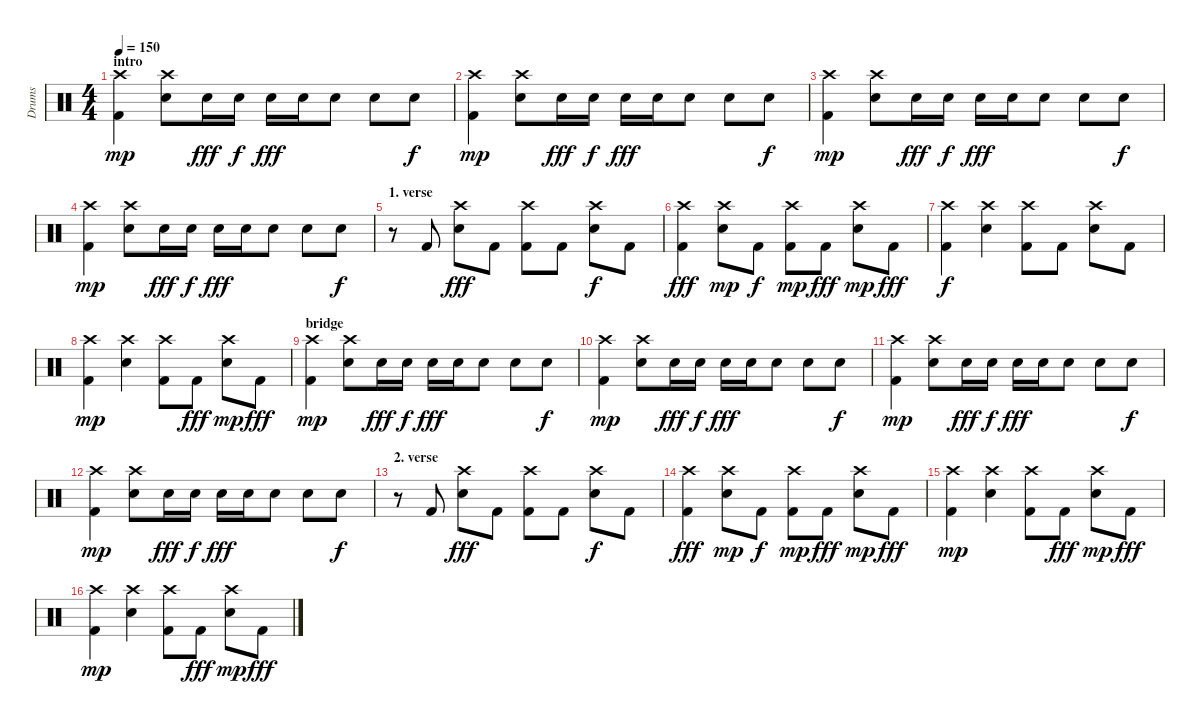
\track ("Drums" "Drums") {instrument percussion}
\staff {score}
\articulation defaults
\ts (4 4)
\section ("" "intro")
\tempo 150
\clef neutral
\ks c
("Kick (hit) 2" "Crash high (hit)").4{dy mp} ("Electric Snare (hit)" "Crash high (hit)").8 "Electric Snare (hit)".16{dy fff} "Electric Snare (hit)".16{dy f} "Electric Snare (hit)".16{dy fff} "Electric Snare (hit)".16 "Electric Snare (hit)".8 "Electric Snare (hit)".8 "Electric Snare (hit)".8{dy f} |
("Kick (hit) 2" "Crash high (hit)").4{dy mp} ("Electric Snare (hit)" "Crash high (hit)").8 "Electric Snare (hit)".16{dy fff} "Electric Snare (hit)".16{dy f} "Electric Snare (hit)".16{dy fff} "Electric Snare (hit)".16 "Electric Snare (hit)".8 "Electric Snare (hit)".8 "Electric Snare (hit)".8{dy f} |
("Kick (hit) 2" "Crash high (hit)").4{dy mp} ("Electric Snare (hit)" "Crash high (hit)").8 "Electric Snare (hit)".16{dy fff} "Electric Snare (hit)".16{dy f} "Electric Snare (hit)".16{dy fff} "Electric Snare (hit)".16 "Electric Snare (hit)".8 "Electric Snare (hit)".8 "Electric Snare (hit)".8{dy f} |
("Kick (hit) 2" "Crash high (hit)").4{dy mp} ("Electric Snare (hit)" "Crash high (hit)").8 "Electric Snare (hit)".16{dy fff} "Electric Snare (hit)".16{dy f} "Electric Snare (hit)".16{dy fff} "Electric Snare (hit)".16 "Electric Snare (hit)".8 "Electric Snare (hit)".8 "Electric Snare (hit)".8{dy f} |
\section ("" "1. verse")
r.8 "Kick (hit) 2".8 ("Electric Snare (hit)" "Crash high (hit)").8{dy fff} "Kick (hit) 2".8 ("Kick (hit) 2" "Crash high (hit)").8 "Kick (hit) 2".8 ("Electric Snare (hit)" "Crash high (hit)").8{dy f} "Kick (hit) 2".8 |
("Kick (hit) 2" "Crash high (hit)").4{dy fff} ("Electric Snare (hit)" "Crash high (hit)").8{dy mp} "Kick (hit) 2".8{dy f} ("Kick (hit) 2" "Crash high (hit)").8{dy mp} "Kick (hit) 2".8{dy fff} ("Electric Snare (hit)" "Crash high (hit)").8{dy mp} "Kick (hit) 2".8{dy fff} |
("Kick (hit) 2" "Crash high (hit)").4{dy f} ("Electric Snare (hit)" "Crash high (hit)").4 ("Kick (hit) 2" "Crash high (hit)").8 "Kick (hit) 2".8 ("Electric Snare (hit)" "Crash high (hit)").8 "Kick (hit) 2".8 |
("Kick (hit) 2" "Crash high (hit)").4{dy mp} ("Electric Snare (hit)" "Crash high (hit)").4 ("Kick (hit) 2" "Crash high (hit)").8 "Kick (hit) 2".8{dy fff} ("Electric Snare (hit)" "Crash high (hit)").8{dy mp} "Kick (hit) 2".8{dy fff} |
\section ("" "bridge")
("Kick (hit) 2" "Crash high (hit)").4{dy mp} ("Electric Snare (hit)" "Crash high (hit)").8 "Electric Snare (hit)".16{dy fff} "Electric Snare (hit)".16{dy f} "Electric Snare (hit)".16{dy fff} "Electric Snare (hit)".16 "Electric Snare (hit)".8 "Electric Snare (hit)".8 "Electric Snare (hit)".8{dy f} |
("Kick (hit) 2" "Crash high (hit)").4{dy mp} ("Electric Snare (hit)" "Crash high (hit)").8 "Electric Snare (hit)".16{dy fff} "Electric Snare (hit)".16{dy f} "Electric Snare (hit)".16{dy fff} "Electric Snare (hit)".16 "Electric Snare (hit)".8 "Electric Snare (hit)".8 "Electric Snare (hit)".8{dy f} |
("Kick (hit) 2" "Crash high (hit)").4{dy mp} ("Electric Snare (hit)" "Crash high (hit)").8 "Electric Snare (hit)".16{dy fff} "Electric Snare (hit)".16{dy f} "Electric Snare (hit)".16{dy fff} "Electric Snare (hit)".16 "Electric Snare (hit)".8 "Electric Snare (hit)".8 "Electric Snare (hit)".8{dy f} |
("Kick (hit) 2" "Crash high (hit)").4{dy mp} ("Electric Snare (hit)" "Crash high (hit)").8 "Electric Snare (hit)".16{dy fff} "Electric Snare (hit)".16{dy f} "Electric Snare (hit)".16{dy fff} "Electric Snare (hit)".16 "Electric Snare (hit)".8 "Electric Snare (hit)".8 "Electric Snare (hit)".8{dy f} |
\section ("" "2. verse")
r.8 "Kick (hit) 2".8 ("Electric Snare (hit)" "Crash high (hit)").8{dy fff} "Kick (hit) 2".8 ("Kick (hit) 2" "Crash high (hit)").8 "Kick (hit) 2".8 ("Electric Snare (hit)" "Crash high (hit)").8{dy f} "Kick (hit) 2".8 |
("Kick (hit) 2" "Crash high (hit)").4{dy fff} ("Electric Snare (hit)" "Crash high (hit)").8{dy mp} "Kick (hit) 2".8{dy f} ("Kick (hit) 2" "Crash high (hit)").8{dy mp} "Kick (hit) 2".8{dy fff} ("Electric Snare (hit)" "Crash high (hit)").8{dy mp} "Kick (hit) 2".8{dy fff} |
("Kick (hit) 2" "Crash high (hit)").4{dy mp} ("Electric Snare (hit)" "Crash high (hit)").4 ("Kick (hit) 2" "Crash high (hit)").8 "Kick (hit) 2".8{dy fff} ("Electric Snare (hit)" "Crash high (hit)").8{dy mp} "Kick (hit) 2".8{dy fff} |
("Kick (hit) 2" "Crash high (hit)").4{dy mp} ("Electric Snare (hit)" "Crash high (hit)").4 ("Kick (hit) 2" "Crash high (hit)").8 "Kick (hit) 2".8{dy fff} ("Electric Snare (hit)" "Crash high (hit)").8{dy mp} "Kick (hit) 2".8{dy fff}
